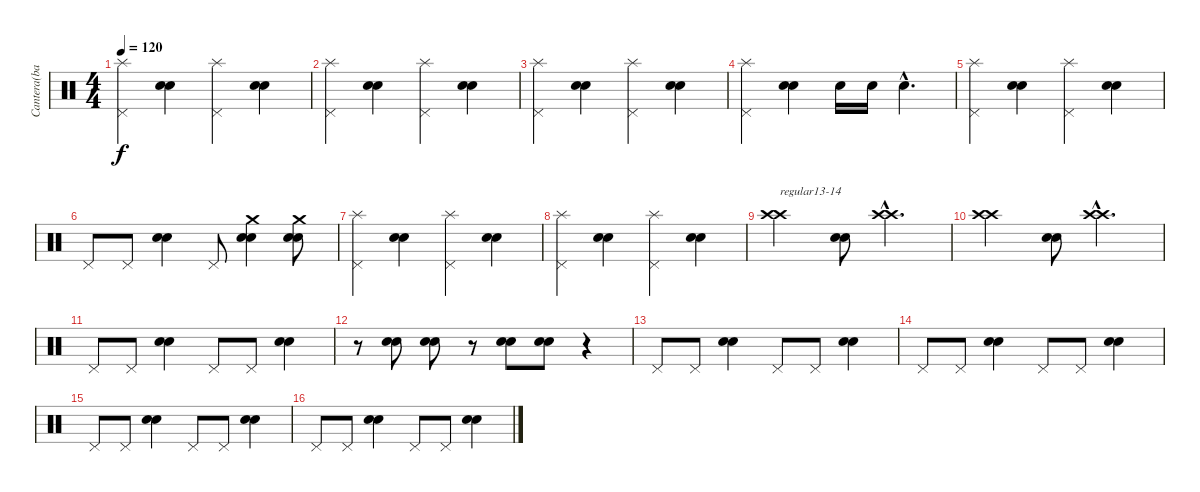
\track ("Cantera(bateria)" "Cantera(ba") {instrument percussion}
\staff {score}
\articulation defaults
\ts (4 4)
\tempo 120
\clef neutral
\ks c
("Pedal Hi-Hat (hit)" "Splash (hit)").4{dy f} ("Electric Snare (hit)" "Electric Snare (hit)").4 ("Pedal Hi-Hat (hit)" "Splash (hit)").4 ("Electric Snare (hit)" "Electric Snare (hit)").4 |
("Pedal Hi-Hat (hit)" "Splash (hit)").4 ("Electric Snare (hit)" "Electric Snare (hit)").4 ("Pedal Hi-Hat (hit)" "Splash (hit)").4 ("Electric Snare (hit)" "Electric Snare (hit)").4 |
("Pedal Hi-Hat (hit)" "Splash (hit)").4 ("Electric Snare (hit)" "Electric Snare (hit)").4 ("Pedal Hi-Hat (hit)" "Splash (hit)").4 ("Electric Snare (hit)" "Electric Snare (hit)").4 |
("Pedal Hi-Hat (hit)" "Splash (hit)").4 ("Electric Snare (hit)" "Electric Snare (hit)").4 "Electric Snare (hit)".16 "Electric Snare (hit)".16 "Electric Snare (hit)"{hac}.4{d} |
("Pedal Hi-Hat (hit)" "Splash (hit)").4 ("Electric Snare (hit)" "Electric Snare (hit)").4 ("Pedal Hi-Hat (hit)" "Splash (hit)").4 ("Electric Snare (hit)" "Electric Snare (hit)").4 |
"Pedal Hi-Hat (hit)".8 "Pedal Hi-Hat (hit)".8 ("Electric Snare (hit)" "Electric Snare (hit)").4 "Pedal Hi-Hat (hit)".8 ("Electric Snare (hit)" "Electric Snare (hit)" "Crash medium (hit)").4 ("Electric Snare (hit)" "Electric Snare (hit)" "Crash medium (hit)").8 |
("Pedal Hi-Hat (hit)" "Splash (hit)").4 ("Electric Snare (hit)" "Electric Snare (hit)").4 ("Pedal Hi-Hat (hit)" "Splash (hit)").4 ("Electric Snare (hit)" "Electric Snare (hit)").4 |
("Pedal Hi-Hat (hit)" "Splash (hit)").4 ("Electric Snare (hit)" "Electric Snare (hit)").4 ("Pedal Hi-Hat (hit)" "Splash (hit)").4 ("Electric Snare (hit)" "Electric Snare (hit)").4 |
("Crash high (hit)" "Crash high (hit)").2{txt "regular13-14"} ("Electric Snare (hit)" "Electric Snare (hit)").8 ("Crash high (hit)"{hac} "Crash high (hit)"{hac}).4{d} |
("Crash high (hit)" "Crash high (hit)").2 ("Electric Snare (hit)" "Electric Snare (hit)").8 ("Crash high (hit)"{hac} "Crash high (hit)"{hac}).4{d} |
"Pedal Hi-Hat (hit)".8 "Pedal Hi-Hat (hit)".8 ("Electric Snare (hit)" "Electric Snare (hit)").4 "Pedal Hi-Hat (hit)".8 "Pedal Hi-Hat (hit)".8 ("Electric Snare (hit)" "Electric Snare (hit)").4 |
r.8 ("Electric Snare (hit)" "Electric Snare (hit)").8 ("Electric Snare (hit)" "Electric Snare (hit)").8 r.8 ("Electric Snare (hit)" "Electric Snare (hit)").8 ("Electric Snare (hit)" "Electric Snare (hit)").8 r.4 |
"Pedal Hi-Hat (hit)".8 "Pedal Hi-Hat (hit)".8 ("Electric Snare (hit)" "Electric Snare (hit)").4 "Pedal Hi-Hat (hit)".8 "Pedal Hi-Hat (hit)".8 ("Electric Snare (hit)" "Electric Snare (hit)").4 |
"Pedal Hi-Hat (hit)".8 "Pedal Hi-Hat (hit)".8 ("Electric Snare (hit)" "Electric Snare (hit)").4 "Pedal Hi-Hat (hit)".8 "Pedal Hi-Hat (hit)".8 ("Electric Snare (hit)" "Electric Snare (hit)").4 |
"Pedal Hi-Hat (hit)".8 "Pedal Hi-Hat (hit)".8 ("Electric Snare (hit)" "Electric Snare (hit)").4 "Pedal Hi-Hat (hit)".8 "Pedal Hi-Hat (hit)".8 ("Electric Snare (hit)" "Electric Snare (hit)").4 |
"Pedal Hi-Hat (hit)".8 "Pedal Hi-Hat (hit)".8 ("Electric Snare (hit)" "Electric Snare (hit)").4 "Pedal Hi-Hat (hit)".8 "Pedal Hi-Hat (hit)".8 ("Electric Snare (hit)" "Electric Snare (hit)").4
